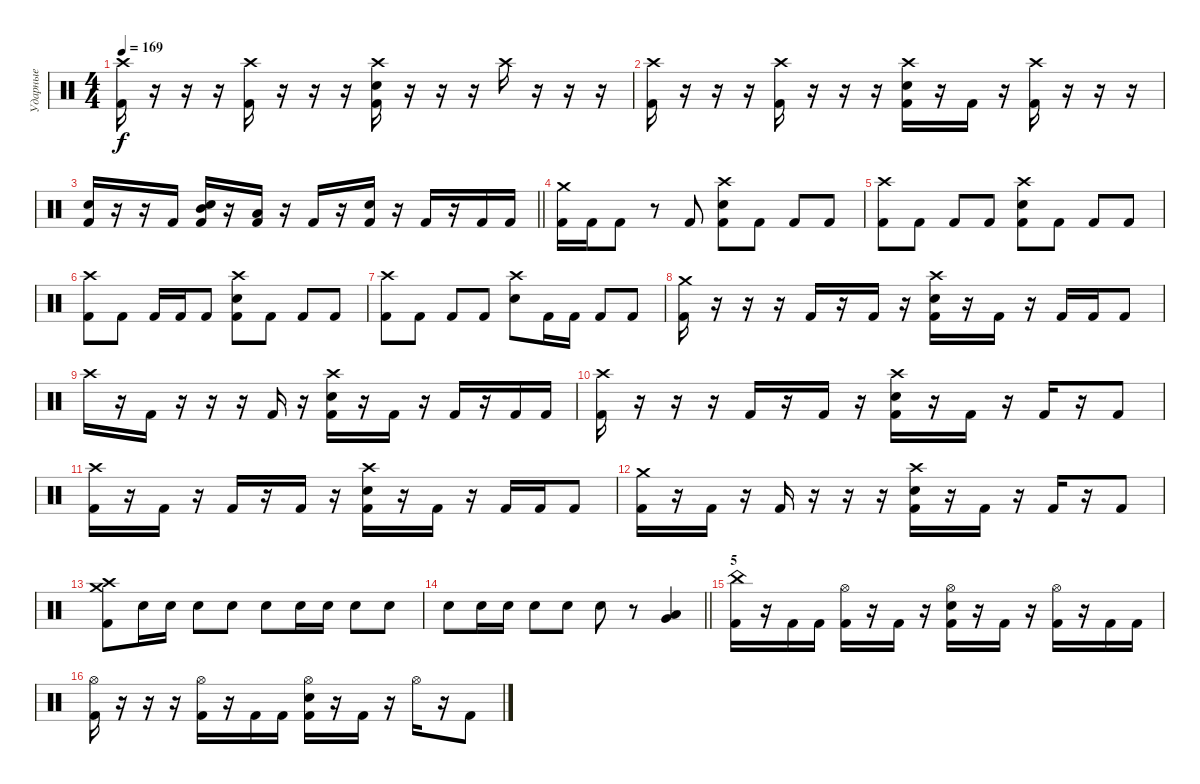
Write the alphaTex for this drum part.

\track ("Ударные" "Ударные") {instrument percussion}
\staff {score}
\articulation defaults
\ts (4 4)
\tempo 169
\clef neutral
\ks c
("Crash high (hit)" "Kick (hit) 2").16{dy f} r.16 r.16 r.16 ("Crash high (hit)" "Kick (hit) 2").16 r.16 r.16 r.16 ("Crash high (hit)" "Snare (hit) 2" "Kick (hit) 2").16 r.16 r.16 r.16 "Crash high (hit)".16 r.16 r.16 r.16 |
("Crash high (hit)" "Kick (hit) 2").16 r.16 r.16 r.16 ("Crash high (hit)" "Kick (hit) 2").16 r.16 r.16 r.16 ("Crash high (hit)" "Snare (hit) 2" "Kick (hit) 2").16 r.16 "Kick (hit) 2".16 r.16 ("Crash high (hit)" "Kick (hit) 2").16 r.16 r.16 r.16 |
\barLineRight lightlight
("Snare (hit) 2" "Kick (hit) 2").16 r.16 r.16 "Kick (hit) 2".16 ("Snare (hit) 2" "Mid Tom (hit)" "Kick (hit) 2").16 r.16 ("Low Tom (hit)" "Kick (hit) 2").16 r.16 "Kick (hit) 2".16 r.16 ("Snare (hit) 2" "Kick (hit) 2").16 r.16 "Kick (hit) 2".16 r.16 "Kick (hit) 2".16 "Kick (hit) 2".16 |
("Crash medium (hit)" "Kick (hit) 2").16 "Kick (hit) 2".16 "Kick (hit) 2".8 r.8 "Kick (hit) 2".8 ("Crash high (hit)" "Snare (hit) 2" "Kick (hit) 2").8 "Kick (hit) 2".8 "Kick (hit) 2".8 "Kick (hit) 2".8 |
("Crash high (hit)" "Kick (hit) 2").8 "Kick (hit) 2".8 "Kick (hit) 2".8 "Kick (hit) 2".8 ("Crash high (hit)" "Snare (hit) 2" "Kick (hit) 2").8 "Kick (hit) 2".8 "Kick (hit) 2".8 "Kick (hit) 2".8 |
("Crash high (hit)" "Kick (hit) 2").8 "Kick (hit) 2".8 "Kick (hit) 2".16 "Kick (hit) 2".16 "Kick (hit) 2".8 ("Crash high (hit)" "Snare (hit) 2" "Kick (hit) 2").8 "Kick (hit) 2".8 "Kick (hit) 2".8 "Kick (hit) 2".8 |
("Crash high (hit)" "Kick (hit) 2").8 "Kick (hit) 2".8 "Kick (hit) 2".8 "Kick (hit) 2".8 ("Crash high (hit)" "Snare (hit) 2").8 "Kick (hit) 2".16 "Kick (hit) 2".16 "Kick (hit) 2".8 "Kick (hit) 2".8 |
("Crash medium (hit)" "Kick (hit) 2").16 r.16 r.16 r.16 "Kick (hit) 2".16 r.16 "Kick (hit) 2".16 r.16 ("Crash high (hit)" "Snare (hit) 2" "Kick (hit) 2").16 r.16 "Kick (hit) 2".16 r.16 "Kick (hit) 2".16 "Kick (hit) 2".16 "Kick (hit) 2".8 |
"Crash high (hit)".16 r.16 "Kick (hit) 2".16 r.16 r.16 r.16 "Kick (hit) 2".16 r.16 ("Crash high (hit)" "Snare (hit) 2" "Kick (hit) 2").16 r.16 "Kick (hit) 2".16 r.16 "Kick (hit) 2".16 r.16 "Kick (hit) 2".16 "Kick (hit) 2".16 |
("Crash high (hit)" "Kick (hit) 2").16 r.16 r.16 r.16 "Kick (hit) 2".16 r.16 "Kick (hit) 2".16 r.16 ("Crash high (hit)" "Snare (hit) 2" "Kick (hit) 2").16 r.16 "Kick (hit) 2".16 r.16 "Kick (hit) 2".16 r.16 "Kick (hit) 2".8 |
("Crash high (hit)" "Kick (hit) 2").16 r.16 "Kick (hit) 2".16 r.16 "Kick (hit) 2".16 r.16 "Kick (hit) 2".16 r.16 ("Crash high (hit)" "Snare (hit) 2" "Kick (hit) 2").16 r.16 "Kick (hit) 2".16 r.16 "Kick (hit) 2".16 "Kick (hit) 2".16 "Kick (hit) 2".8 |
("Crash medium (hit)" "Kick (hit) 2").16 r.16 "Kick (hit) 2".16 r.16 "Kick (hit) 2".16 r.16 r.16 r.16 ("Crash high (hit)" "Snare (hit) 2" "Kick (hit) 2").16 r.16 "Kick (hit) 2".16 r.16 "Kick (hit) 2".16 r.16 "Kick (hit) 2".8 |
("Crash high (hit)" "Crash medium (hit)" "Kick (hit) 2").8 "Snare (hit) 2".16 "Snare (hit) 2".16 "Snare (hit) 2".8 "Snare (hit) 2".8 "Snare (hit) 2".8 "Snare (hit) 2".16 "Snare (hit) 2".16 "Snare (hit) 2".8 "Snare (hit) 2".8 |
\barLineRight lightlight "Snare (hit) 2".8 "Snare (hit) 2".16 "Snare (hit) 2".16 "Snare (hit) 2".8 "Snare (hit) 2".8 "Snare (hit) 2".8
r.8 ("Very Low Tom (hit)" "Low Floor Tom (hit)").4{bu 240} |
\section ("" "5")
("China (hit)" "Kick (hit) 2").16 r.16 "Kick (hit) 2".16 "Kick (hit) 2".16 ("Hi-Hat (open)" "Kick (hit) 2").16 r.16 "Kick (hit) 2".16 r.16 ("Hi-Hat (open)" "Snare (hit) 2" "Kick (hit) 2").16 r.16 "Kick (hit) 2".16 r.16 ("Hi-Hat (open)" "Kick (hit) 2").16 r.16 "Kick (hit) 2".16 "Kick (hit) 2".16 |
("Hi-Hat (open)" "Kick (hit) 2").16 r.16 r.16 r.16 ("Hi-Hat (open)" "Kick (hit) 2").16 r.16 "Kick (hit) 2".16 "Kick (hit) 2".16 ("Hi-Hat (open)" "Snare (hit) 2" "Kick (hit) 2").16 r.16 "Kick (hit) 2".16 r.16 "Hi-Hat (open)".16 r.16 "Kick (hit) 2".8
